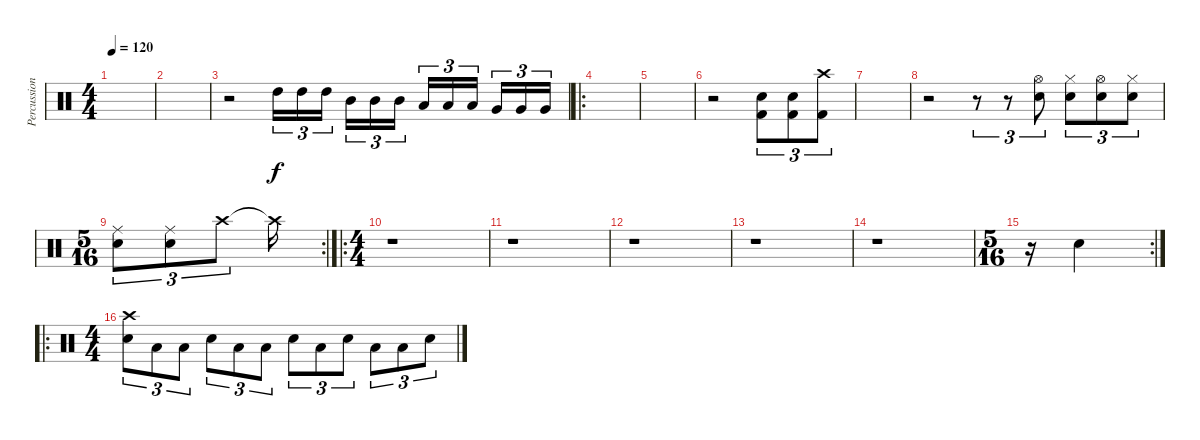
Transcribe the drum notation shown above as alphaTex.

\track ("Percussion" "Percussion") {instrument percussion}
\staff {score}
\articulation defaults
\ts (4 4)
\tempo 120
\clef neutral
\ks c
|
|
r.2 "High Tom (hit)".16{tu (3 2)} "High Tom (hit)".16{tu (3 2)} "High Tom (hit)".16{tu (3 2)} "Mid Tom (hit)".16{tu (3 2)} "Mid Tom (hit)".16{tu (3 2)} "Mid Tom (hit)".16{tu (3 2)} "Low Tom (hit)".16{tu (3 2)} "Low Tom (hit)".16{tu (3 2)} "Low Tom (hit)".16{tu (3 2)} "Very Low Tom (hit)".16{tu (3 2)} "Very Low Tom (hit)".16{tu (3 2)} "Very Low Tom (hit)".16{tu (3 2)} |
\ro
|
|
r.2 ("Kick (hit) 2" "Electric Snare (hit)").8{tu (3 2)} ("Kick (hit) 2" "Electric Snare (hit)").8{tu (3 2)} ("Kick (hit) 2" "Crash high (hit)").8{tu (3 2)} |
|
r.2 r.8{tu (3 2)} r.8{tu (3 2)} ("Electric Snare (hit)" "Hi-Hat (open)").8{tu (3 2)} ("Electric Snare (hit)" "Hi-Hat (closed)").8{tu (3 2)} ("Electric Snare (hit)" "Hi-Hat (open)").8{tu (3 2)} ("Electric Snare (hit)" "Hi-Hat (closed)").8{tu (3 2)} |
\rc 2
\ts (5 16)
("Electric Snare (hit)" "Ride (middle)").8{tu (3 2)} ("Electric Snare (hit)" "Ride (middle)").8{tu (3 2)} "Crash high (hit)".8{tu (3 2)} "Crash high (hit)"{t}.16 |
\ro
\ts (4 4)
r.1 |
r.1 |
r.1 |
r.1 |
r.1 |
\rc 2
\ts (5 16)
r.16 "Snare (hit)".4 |
\ro
\ts (4 4)
("Crash high (hit)" "Electric Snare (hit)").8{tu (3 2)} "Low Tom (hit)".8{tu (3 2)} "Low Tom (hit)".8{tu (3 2)} "Electric Snare (hit)".8{tu (3 2)} "Low Tom (hit)".8{tu (3 2)} "Low Tom (hit)".8{tu (3 2)} "Electric Snare (hit)".8{tu (3 2)} "Low Tom (hit)".8{tu (3 2)} "Electric Snare (hit)".8{tu (3 2)} "Low Tom (hit)".8{tu (3 2)} "Low Tom (hit)".8{tu (3 2)} "Electric Snare (hit)".8{tu (3 2)}
